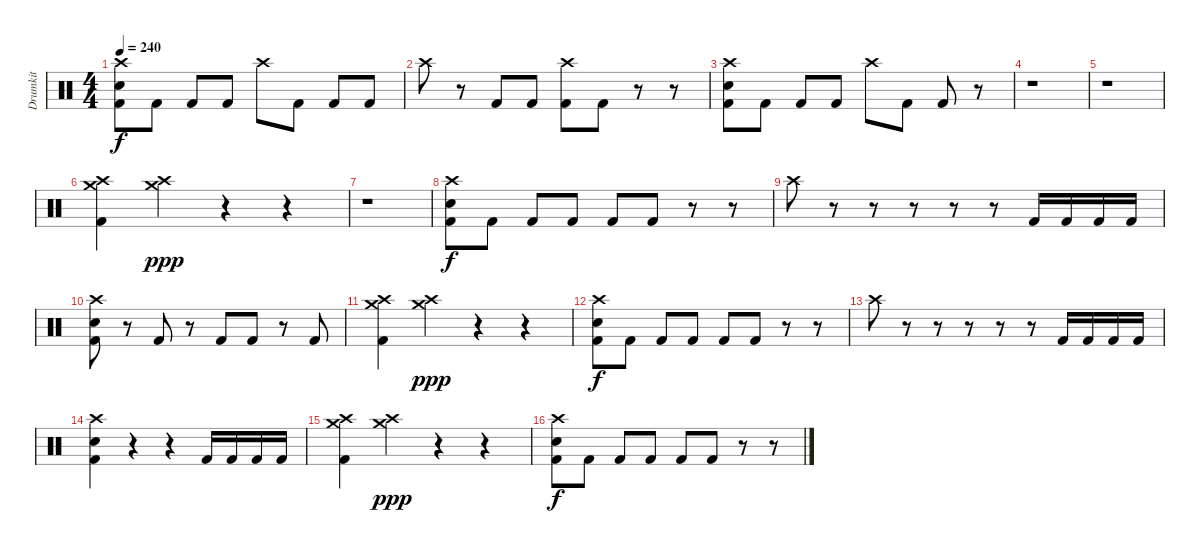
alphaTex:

\track ("Drumkit" "Drumkit") {instrument percussion}
\staff {score}
\articulation defaults
\ts (4 4)
\tempo 240
\clef neutral
\ks c
("Crash high (hit)" "Electric Snare (hit)" "Kick (hit) 2").8{dy f} "Kick (hit) 2".8 "Kick (hit) 2".8 "Kick (hit) 2".8 "Crash high (hit)".8 "Kick (hit) 2".8 "Kick (hit) 2".8 "Kick (hit) 2".8 |
"Crash high (hit)".8 r.8 "Kick (hit) 2".8 "Kick (hit) 2".8 ("Crash high (hit)" "Kick (hit) 2").8 "Kick (hit) 2".8 r.8 r.8 |
("Crash high (hit)" "Electric Snare (hit)" "Kick (hit) 2").8 "Kick (hit) 2".8 "Kick (hit) 2".8 "Kick (hit) 2".8 "Crash high (hit)".8 "Kick (hit) 2".8 "Kick (hit) 2".8 r.8 |
r.1 |
r.1 |
("Crash medium (hit)" "Crash high (hit)" "Kick (hit) 2").4 ("Crash medium (hit)" "Crash high (hit)").4{dy ppp} r.4 r.4 |
r.1 |
("Crash high (hit)" "Electric Snare (hit)" "Kick (hit) 2").8{dy f} "Kick (hit) 2".8 "Kick (hit) 2".8 "Kick (hit) 2".8 "Kick (hit) 2".8 "Kick (hit) 2".8 r.8 r.8 |
"Crash high (hit)".8 r.8 r.8 r.8 r.8 r.8 "Kick (hit) 2".16 "Kick (hit) 2".16 "Kick (hit) 2".16 "Kick (hit) 2".16 |
("Crash high (hit)" "Electric Snare (hit)" "Kick (hit) 2").8 r.8 "Kick (hit) 2".8 r.8 "Kick (hit) 2".8 "Kick (hit) 2".8 r.8 "Kick (hit) 2".8 |
("Crash medium (hit)" "Crash high (hit)" "Kick (hit) 2").4 ("Crash medium (hit)" "Crash high (hit)").4{dy ppp} r.4 r.4 |
("Crash high (hit)" "Electric Snare (hit)" "Kick (hit) 2").8{dy f} "Kick (hit) 2".8 "Kick (hit) 2".8 "Kick (hit) 2".8 "Kick (hit) 2".8 "Kick (hit) 2".8 r.8 r.8 |
"Crash high (hit)".8 r.8 r.8 r.8 r.8 r.8 "Kick (hit) 2".16 "Kick (hit) 2".16 "Kick (hit) 2".16 "Kick (hit) 2".16 |
("Crash high (hit)" "Electric Snare (hit)" "Kick (hit) 2").4 r.4 r.4 "Kick (hit) 2".16 "Kick (hit) 2".16 "Kick (hit) 2".16 "Kick (hit) 2".16 |
("Crash medium (hit)" "Crash high (hit)" "Kick (hit) 2").4 ("Crash medium (hit)" "Crash high (hit)").4{dy ppp} r.4 r.4 |
("Crash high (hit)" "Electric Snare (hit)" "Kick (hit) 2").8{dy f} "Kick (hit) 2".8 "Kick (hit) 2".8 "Kick (hit) 2".8 "Kick (hit) 2".8 "Kick (hit) 2".8 r.8 r.8
